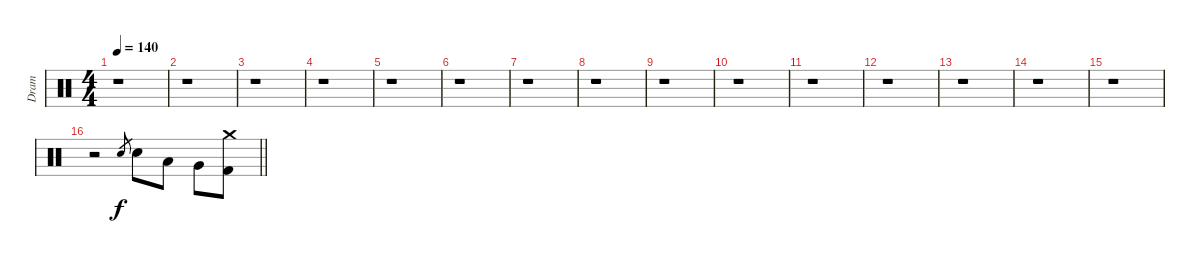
\track ("Dram" "Dram") {instrument percussion}
\staff {score}
\articulation defaults
\ts (4 4)
\tempo 140
\clef neutral
\ks c
r.1{dy f} |
r.1 |
r.1 |
r.1 |
r.1 |
r.1 |
r.1 |
r.1 |
r.1 |
r.1 |
r.1 |
r.1 |
r.1 |
r.1 |
r.1 |
\barLineRight lightlight
r.2 "Snare (hit) 2".8{gr} "Snare (hit) 2".8 "Low Tom (hit)".8 "Very Low Tom (hit)".8 ("Crash medium (hit)" "Kick (hit) 2").8
